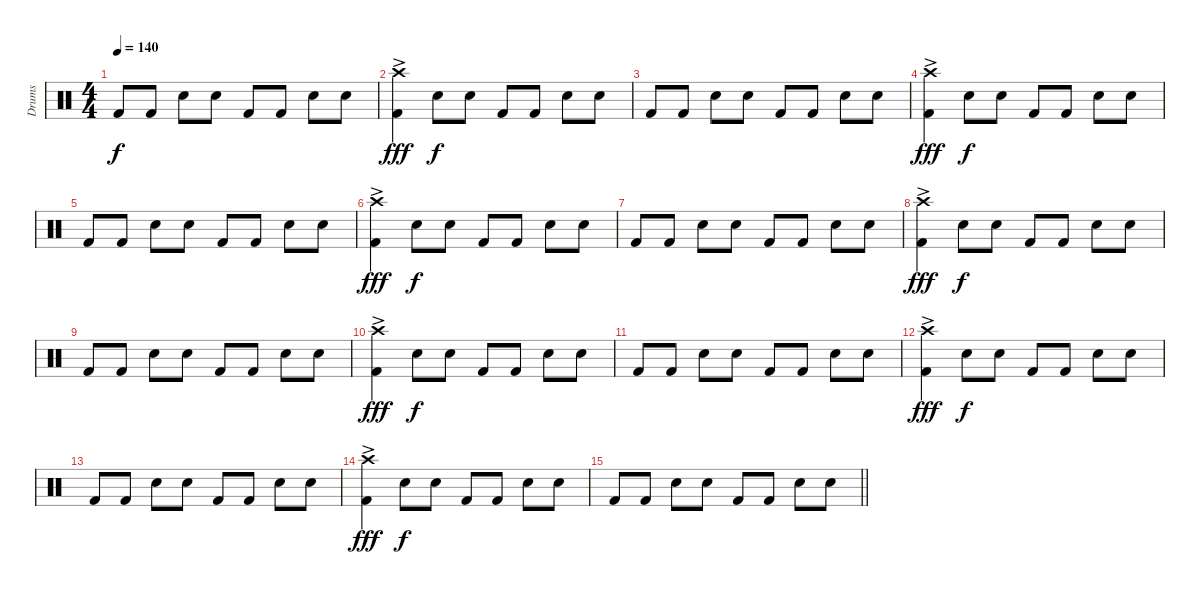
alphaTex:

\track ("Drums" "Drums") {instrument percussion}
\staff {score}
\articulation defaults
\ts (4 4)
\tempo 140
\clef neutral
\ks c "Kick (hit) 2".8{dy f} "Kick (hit) 2".8 "Snare (hit) 2".8 "Snare (hit) 2".8 "Kick (hit) 2".8 "Kick (hit) 2".8 "Snare (hit) 2".8 "Snare (hit) 2".8
|
("Crash high (hit)"{ac} "Kick (hit) 2"{ac}).4{dy fff} "Snare (hit) 2".8{dy f} "Snare (hit) 2".8 "Kick (hit) 2".8 "Kick (hit) 2".8 "Snare (hit) 2".8 "Snare (hit) 2".8 |
"Kick (hit) 2".8 "Kick (hit) 2".8 "Snare (hit) 2".8 "Snare (hit) 2".8 "Kick (hit) 2".8 "Kick (hit) 2".8 "Snare (hit) 2".8 "Snare (hit) 2".8 |
("Crash high (hit)"{ac} "Kick (hit) 2"{ac}).4{dy fff} "Snare (hit) 2".8{dy f} "Snare (hit) 2".8 "Kick (hit) 2".8 "Kick (hit) 2".8 "Snare (hit) 2".8 "Snare (hit) 2".8 |
"Kick (hit) 2".8 "Kick (hit) 2".8 "Snare (hit) 2".8 "Snare (hit) 2".8 "Kick (hit) 2".8 "Kick (hit) 2".8 "Snare (hit) 2".8 "Snare (hit) 2".8 |
("Crash high (hit)"{ac} "Kick (hit) 2"{ac}).4{dy fff} "Snare (hit) 2".8{dy f} "Snare (hit) 2".8 "Kick (hit) 2".8 "Kick (hit) 2".8 "Snare (hit) 2".8 "Snare (hit) 2".8 |
"Kick (hit) 2".8 "Kick (hit) 2".8 "Snare (hit) 2".8 "Snare (hit) 2".8 "Kick (hit) 2".8 "Kick (hit) 2".8 "Snare (hit) 2".8 "Snare (hit) 2".8 |
("Crash high (hit)"{ac} "Kick (hit) 2"{ac}).4{dy fff} "Snare (hit) 2".8{dy f} "Snare (hit) 2".8 "Kick (hit) 2".8 "Kick (hit) 2".8 "Snare (hit) 2".8 "Snare (hit) 2".8 |
"Kick (hit) 2".8 "Kick (hit) 2".8 "Snare (hit) 2".8 "Snare (hit) 2".8 "Kick (hit) 2".8 "Kick (hit) 2".8 "Snare (hit) 2".8 "Snare (hit) 2".8 |
("Crash high (hit)"{ac} "Kick (hit) 2"{ac}).4{dy fff} "Snare (hit) 2".8{dy f} "Snare (hit) 2".8 "Kick (hit) 2".8 "Kick (hit) 2".8 "Snare (hit) 2".8 "Snare (hit) 2".8 |
"Kick (hit) 2".8 "Kick (hit) 2".8 "Snare (hit) 2".8 "Snare (hit) 2".8 "Kick (hit) 2".8 "Kick (hit) 2".8 "Snare (hit) 2".8 "Snare (hit) 2".8 |
("Crash high (hit)"{ac} "Kick (hit) 2"{ac}).4{dy fff} "Snare (hit) 2".8{dy f} "Snare (hit) 2".8 "Kick (hit) 2".8 "Kick (hit) 2".8 "Snare (hit) 2".8 "Snare (hit) 2".8 |
"Kick (hit) 2".8 "Kick (hit) 2".8 "Snare (hit) 2".8 "Snare (hit) 2".8 "Kick (hit) 2".8 "Kick (hit) 2".8 "Snare (hit) 2".8 "Snare (hit) 2".8 |
("Crash high (hit)"{ac} "Kick (hit) 2"{ac}).4{dy fff} "Snare (hit) 2".8{dy f} "Snare (hit) 2".8 "Kick (hit) 2".8 "Kick (hit) 2".8 "Snare (hit) 2".8 "Snare (hit) 2".8 |
\barLineRight lightlight "Kick (hit) 2".8 "Kick (hit) 2".8 "Snare (hit) 2".8 "Snare (hit) 2".8 "Kick (hit) 2".8 "Kick (hit) 2".8 "Snare (hit) 2".8 "Snare (hit) 2".8
